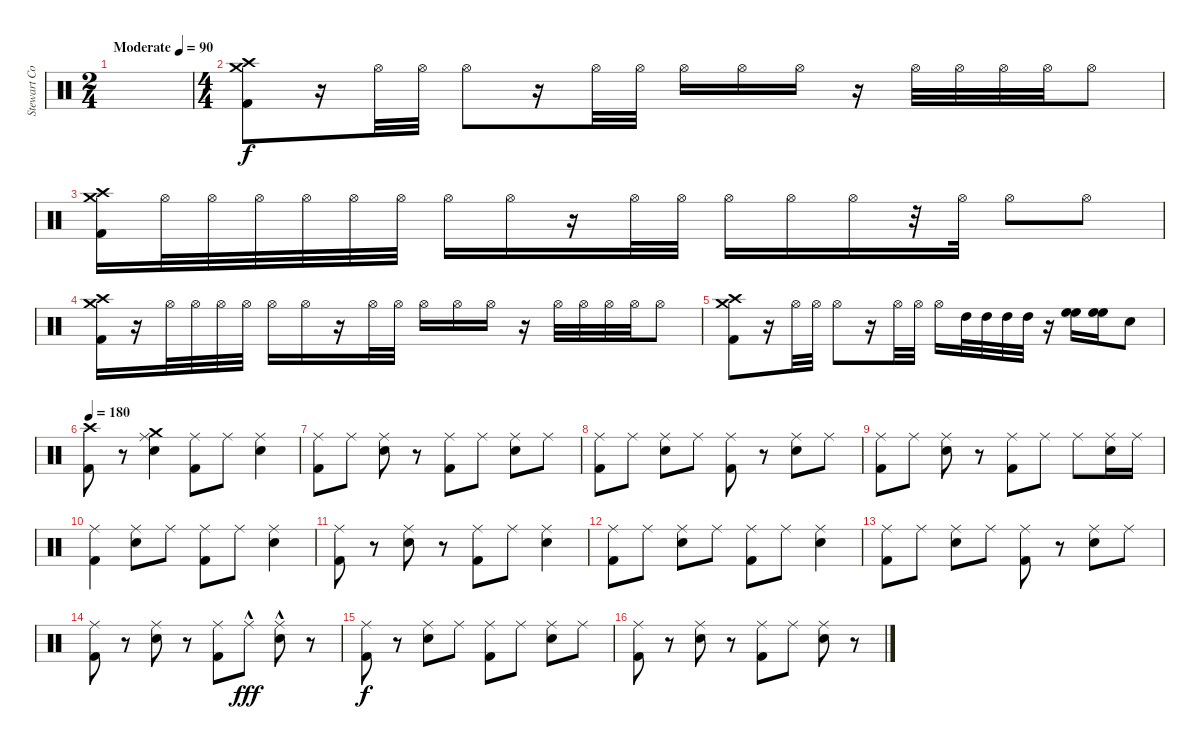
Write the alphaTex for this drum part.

\track ("Stewart Copeland" "Stewart Co") {instrument percussion}
\staff {score}
\articulation defaults
\ts (2 4)
\tempo (90 "Moderate")
\clef neutral
\ks c
|
\ts (4 4)
("Crash high (hit)" "Crash medium (hit)" "Kick (hit) 2").8 r.16 "Hi-Hat (open)".32 "Hi-Hat (open)".32 "Hi-Hat (open)".8 r.16 "Hi-Hat (open)".32 "Hi-Hat (open)".32 "Hi-Hat (open)".16 "Hi-Hat (open)".16 "Hi-Hat (open)".16 r.16 "Hi-Hat (open)".32 "Hi-Hat (open)".32 "Hi-Hat (open)".32 "Hi-Hat (open)".32 "Hi-Hat (open)".8 |
("Crash high (hit)" "Crash medium (hit)" "Kick (hit) 2").16 "Hi-Hat (open)".32 "Hi-Hat (open)".32 "Hi-Hat (open)".32 "Hi-Hat (open)".32 "Hi-Hat (open)".32 "Hi-Hat (open)".32 "Hi-Hat (open)".16 "Hi-Hat (open)".16 r.16 "Hi-Hat (open)".32 "Hi-Hat (open)".32 "Hi-Hat (open)".16 "Hi-Hat (open)".16 "Hi-Hat (open)".16 r.32 "Hi-Hat (open)".32 "Hi-Hat (open)".8 "Hi-Hat (open)".8 |
("Crash high (hit)" "Crash medium (hit)" "Kick (hit) 2").16 r.16 "Hi-Hat (open)".32 "Hi-Hat (open)".32 "Hi-Hat (open)".32 "Hi-Hat (open)".32 "Hi-Hat (open)".16 "Hi-Hat (open)".16 r.16 "Hi-Hat (open)".32 "Hi-Hat (open)".32 "Hi-Hat (open)".16 "Hi-Hat (open)".16 "Hi-Hat (open)".16 r.16 "Hi-Hat (open)".32 "Hi-Hat (open)".32 "Hi-Hat (open)".32 "Hi-Hat (open)".32 "Hi-Hat (open)".8 |
("Crash high (hit)" "Crash medium (hit)" "Kick (hit) 2").8 r.16 "Hi-Hat (open)".32 "Hi-Hat (open)".32 "Hi-Hat (open)".8 r.16 "Hi-Hat (open)".32 "Hi-Hat (open)".32 "Hi-Hat (open)".16 "High Tom (hit)".32 "High Tom (hit)".32 "High Tom (hit)".32 "High Tom (hit)".32 r.16 ("High Floor Tom (hit)" "High Floor Tom (hit)").16 ("High Floor Tom (hit)" "High Floor Tom (hit)").16 "Electric Snare (hit)".8 |
\tempo 180
("Crash high (hit)" "Kick (hit) 2").8 r.8 ("Crash medium (hit)" "Ride (middle)" "Electric Snare (hit)").4 ("Ride (middle)" "Kick (hit) 2").8 "Ride (middle)".8 ("Ride (middle)" "Electric Snare (hit)").4 |
("Ride (middle)" "Kick (hit) 2").8 "Ride (middle)".8 ("Ride (middle)" "Electric Snare (hit)").8 r.8 ("Ride (middle)" "Kick (hit) 2").8 "Ride (middle)".8 ("Ride (middle)" "Electric Snare (hit)").8 "Ride (middle)".8 |
("Ride (middle)" "Kick (hit) 2").8 "Ride (middle)".8 ("Ride (middle)" "Electric Snare (hit)").8 "Ride (middle)".8 ("Ride (middle)" "Kick (hit) 2").8 r.8 ("Ride (middle)" "Electric Snare (hit)").8 "Ride (middle)".8 |
("Ride (middle)" "Kick (hit) 2").8 "Ride (middle)".8 ("Ride (middle)" "Electric Snare (hit)").8 r.8 ("Ride (middle)" "Kick (hit) 2").8 "Ride (middle)".8 "Ride (middle)".8 ("Ride (middle)" "Electric Snare (hit)").16 "Ride (middle)".16 |
("Ride (middle)" "Kick (hit) 2").4 ("Ride (middle)" "Electric Snare (hit)").8 "Ride (middle)".8 ("Ride (middle)" "Kick (hit) 2").8 "Ride (middle)".8 ("Ride (middle)" "Electric Snare (hit)").4 |
("Ride (middle)" "Kick (hit) 2").8 r.8 ("Ride (middle)" "Electric Snare (hit)").8 r.8 ("Ride (middle)" "Kick (hit) 2").8 "Ride (middle)".8 ("Ride (middle)" "Electric Snare (hit)").4 |
("Ride (middle)" "Kick (hit) 2").8 "Ride (middle)".8 ("Ride (middle)" "Electric Snare (hit)").8 "Ride (middle)".8 ("Ride (middle)" "Kick (hit) 2").8 "Ride (middle)".8 ("Ride (middle)" "Electric Snare (hit)").4 |
("Ride (middle)" "Kick (hit) 2").8 "Ride (middle)".8 ("Ride (middle)" "Electric Snare (hit)").8 "Ride (middle)".8 ("Ride (middle)" "Kick (hit) 2").8 r.8 ("Ride (middle)" "Electric Snare (hit)").8 "Ride (middle)".8 |
("Ride (middle)" "Kick (hit) 2").8 r.8 ("Ride (middle)" "Electric Snare (hit)").8 r.8 ("Ride (middle)" "Kick (hit) 2").8 "Ride (middle)"{hac}.8{dy fff} ("Ride (middle)"{hac} "Electric Snare (hit)").8 r.8 |
("Ride (middle)" "Kick (hit) 2").8{dy f} r.8 ("Ride (middle)" "Electric Snare (hit)").8 "Ride (middle)".8 ("Ride (middle)" "Kick (hit) 2").8 "Ride (middle)".8 ("Ride (middle)" "Electric Snare (hit)").8 "Ride (middle)".8 |
("Ride (middle)" "Kick (hit) 2").8 r.8 ("Ride (middle)" "Electric Snare (hit)").8 r.8 ("Ride (middle)" "Kick (hit) 2").8 "Ride (middle)".8 ("Ride (middle)" "Electric Snare (hit)").8 r.8
